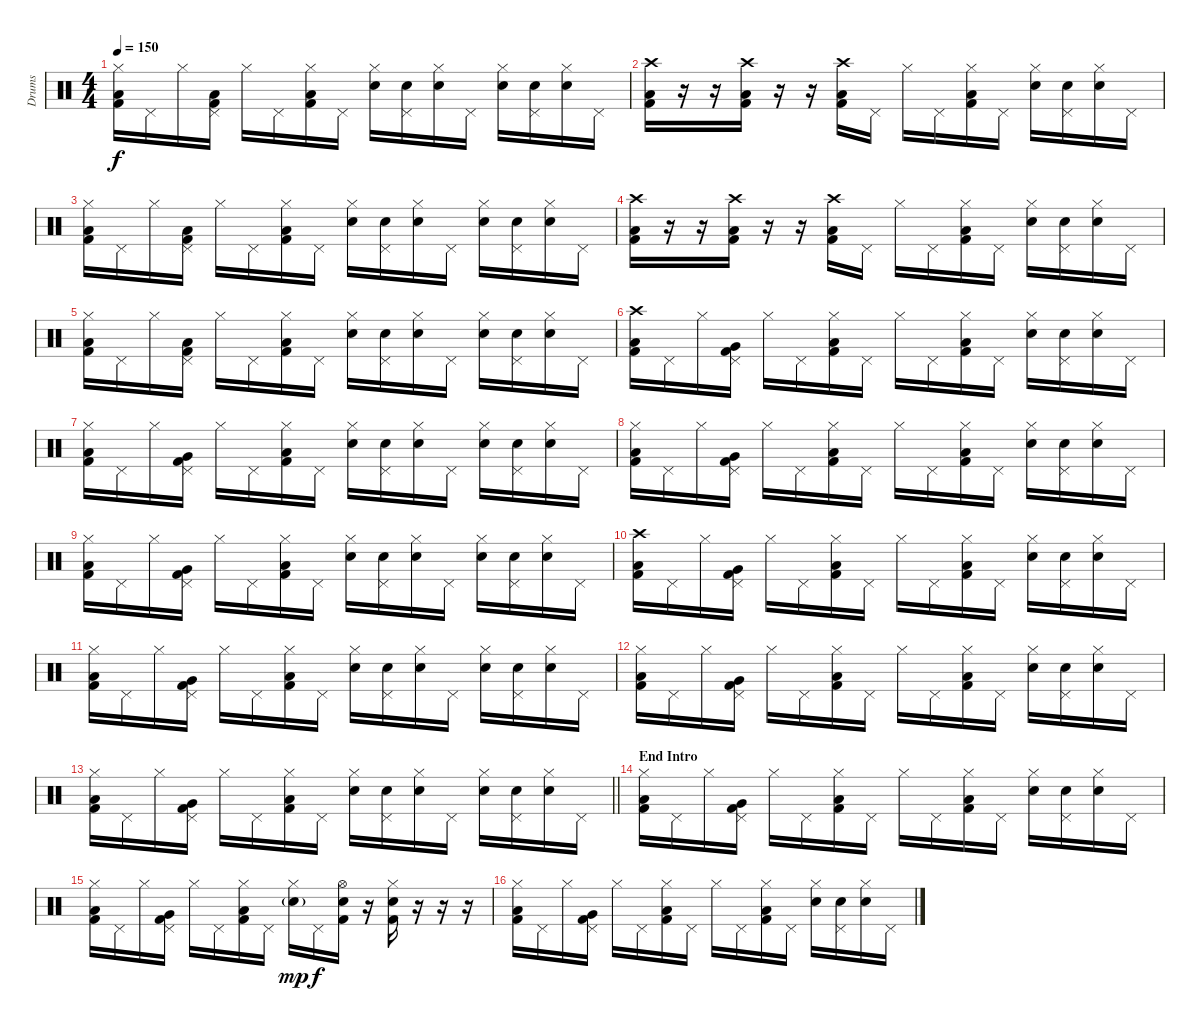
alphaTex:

\track ("Drums" "Drums") {instrument percussion}
\staff {score}
\articulation defaults
\ts (4 4)
\tempo 150
\clef neutral
\ks c
("Hi-Hat (closed)" "Low Floor Tom (hit)" "Kick (hit) 2").16{dy f} "Pedal Hi-Hat (hit)".16 "Hi-Hat (closed)".16 ("Pedal Hi-Hat (hit)" "Low Floor Tom (hit)" "Kick (hit) 2").16 "Hi-Hat (closed)".16 "Pedal Hi-Hat (hit)".16 ("Hi-Hat (closed)" "Low Floor Tom (hit)" "Kick (hit) 2").16 "Pedal Hi-Hat (hit)".16 ("Hi-Hat (closed)" "Electric Snare (hit)").16 ("Pedal Hi-Hat (hit)" "Electric Snare (hit)").16 ("Hi-Hat (closed)" "Electric Snare (hit)").16 "Pedal Hi-Hat (hit)".16 ("Hi-Hat (closed)" "Electric Snare (hit)").16 ("Pedal Hi-Hat (hit)" "Electric Snare (hit)").16 ("Hi-Hat (closed)" "Electric Snare (hit)").16 "Pedal Hi-Hat (hit)".16 |
("Crash high (hit)" "Low Floor Tom (hit)" "Kick (hit) 2").16 r.16 r.16 ("Crash high (hit)" "Low Floor Tom (hit)" "Kick (hit) 2").16 r.16 r.16 ("Crash high (hit)" "Low Floor Tom (hit)" "Kick (hit) 2").16 "Pedal Hi-Hat (hit)".16 "Hi-Hat (closed)".16 "Pedal Hi-Hat (hit)".16 ("Hi-Hat (closed)" "Low Floor Tom (hit)" "Kick (hit) 2").16 "Pedal Hi-Hat (hit)".16 ("Hi-Hat (closed)" "Electric Snare (hit)").16 ("Pedal Hi-Hat (hit)" "Electric Snare (hit)").16 ("Hi-Hat (closed)" "Electric Snare (hit)").16 "Pedal Hi-Hat (hit)".16 |
("Hi-Hat (closed)" "Low Floor Tom (hit)" "Kick (hit) 2").16 "Pedal Hi-Hat (hit)".16 "Hi-Hat (closed)".16 ("Pedal Hi-Hat (hit)" "Low Floor Tom (hit)" "Kick (hit) 2").16 "Hi-Hat (closed)".16 "Pedal Hi-Hat (hit)".16 ("Hi-Hat (closed)" "Low Floor Tom (hit)" "Kick (hit) 2").16 "Pedal Hi-Hat (hit)".16 ("Hi-Hat (closed)" "Electric Snare (hit)").16 ("Pedal Hi-Hat (hit)" "Electric Snare (hit)").16 ("Hi-Hat (closed)" "Electric Snare (hit)").16 "Pedal Hi-Hat (hit)".16 ("Hi-Hat (closed)" "Electric Snare (hit)").16 ("Pedal Hi-Hat (hit)" "Electric Snare (hit)").16 ("Hi-Hat (closed)" "Electric Snare (hit)").16 "Pedal Hi-Hat (hit)".16 |
("Crash high (hit)" "Low Floor Tom (hit)" "Kick (hit) 2").16 r.16 r.16 ("Crash high (hit)" "Low Floor Tom (hit)" "Kick (hit) 2").16 r.16 r.16 ("Crash high (hit)" "Low Floor Tom (hit)" "Kick (hit) 2").16 "Pedal Hi-Hat (hit)".16 "Hi-Hat (closed)".16 "Pedal Hi-Hat (hit)".16 ("Hi-Hat (closed)" "Low Floor Tom (hit)" "Kick (hit) 2").16 "Pedal Hi-Hat (hit)".16 ("Hi-Hat (closed)" "Electric Snare (hit)").16 ("Pedal Hi-Hat (hit)" "Electric Snare (hit)").16 ("Hi-Hat (closed)" "Electric Snare (hit)").16 "Pedal Hi-Hat (hit)".16 |
("Hi-Hat (closed)" "Low Floor Tom (hit)" "Kick (hit) 2").16 "Pedal Hi-Hat (hit)".16 "Hi-Hat (closed)".16 ("Pedal Hi-Hat (hit)" "Low Floor Tom (hit)" "Kick (hit) 2").16 "Hi-Hat (closed)".16 "Pedal Hi-Hat (hit)".16 ("Hi-Hat (closed)" "Low Floor Tom (hit)" "Kick (hit) 2").16 "Pedal Hi-Hat (hit)".16 ("Hi-Hat (closed)" "Electric Snare (hit)").16 ("Pedal Hi-Hat (hit)" "Electric Snare (hit)").16 ("Hi-Hat (closed)" "Electric Snare (hit)").16 "Pedal Hi-Hat (hit)".16 ("Hi-Hat (closed)" "Electric Snare (hit)").16 ("Pedal Hi-Hat (hit)" "Electric Snare (hit)").16 ("Hi-Hat (closed)" "Electric Snare (hit)").16 "Pedal Hi-Hat (hit)".16 |
("Crash high (hit)" "Low Tom (hit)" "Kick (hit) 2").16 "Pedal Hi-Hat (hit)".16 "Hi-Hat (closed)".16 ("Pedal Hi-Hat (hit)" "Very Low Tom (hit)" "Kick (hit) 2").16 "Hi-Hat (closed)".16 "Pedal Hi-Hat (hit)".16 ("Hi-Hat (closed)" "Low Floor Tom (hit)" "Kick (hit) 2").16 "Pedal Hi-Hat (hit)".16 "Hi-Hat (closed)".16 "Pedal Hi-Hat (hit)".16 ("Hi-Hat (closed)" "Low Floor Tom (hit)" "Kick (hit) 2").16 "Pedal Hi-Hat (hit)".16 ("Hi-Hat (closed)" "Electric Snare (hit)").16 ("Pedal Hi-Hat (hit)" "Electric Snare (hit)").16 ("Hi-Hat (closed)" "Electric Snare (hit)").16 "Pedal Hi-Hat (hit)".16 |
("Hi-Hat (closed)" "Low Tom (hit)" "Kick (hit) 2").16 "Pedal Hi-Hat (hit)".16 "Hi-Hat (closed)".16 ("Pedal Hi-Hat (hit)" "Very Low Tom (hit)" "Kick (hit) 2").16 "Hi-Hat (closed)".16 "Pedal Hi-Hat (hit)".16 ("Hi-Hat (closed)" "Low Floor Tom (hit)" "Kick (hit) 2").16 "Pedal Hi-Hat (hit)".16 ("Hi-Hat (closed)" "Electric Snare (hit)").16 ("Pedal Hi-Hat (hit)" "Electric Snare (hit)").16 ("Hi-Hat (closed)" "Electric Snare (hit)").16 "Pedal Hi-Hat (hit)".16 ("Hi-Hat (closed)" "Electric Snare (hit)").16 ("Pedal Hi-Hat (hit)" "Electric Snare (hit)").16 ("Hi-Hat (closed)" "Electric Snare (hit)").16 "Pedal Hi-Hat (hit)".16 |
("Hi-Hat (closed)" "Low Tom (hit)" "Kick (hit) 2").16 "Pedal Hi-Hat (hit)".16 "Hi-Hat (closed)".16 ("Pedal Hi-Hat (hit)" "Very Low Tom (hit)" "Kick (hit) 2").16 "Hi-Hat (closed)".16 "Pedal Hi-Hat (hit)".16 ("Hi-Hat (closed)" "Low Floor Tom (hit)" "Kick (hit) 2").16 "Pedal Hi-Hat (hit)".16 "Hi-Hat (closed)".16 "Pedal Hi-Hat (hit)".16 ("Hi-Hat (closed)" "Low Floor Tom (hit)" "Kick (hit) 2").16 "Pedal Hi-Hat (hit)".16 ("Hi-Hat (closed)" "Electric Snare (hit)").16 ("Pedal Hi-Hat (hit)" "Electric Snare (hit)").16 ("Hi-Hat (closed)" "Electric Snare (hit)").16 "Pedal Hi-Hat (hit)".16 |
("Hi-Hat (closed)" "Low Tom (hit)" "Kick (hit) 2").16 "Pedal Hi-Hat (hit)".16 "Hi-Hat (closed)".16 ("Pedal Hi-Hat (hit)" "Very Low Tom (hit)" "Kick (hit) 2").16 "Hi-Hat (closed)".16 "Pedal Hi-Hat (hit)".16 ("Hi-Hat (closed)" "Low Floor Tom (hit)" "Kick (hit) 2").16 "Pedal Hi-Hat (hit)".16 ("Hi-Hat (closed)" "Electric Snare (hit)").16 ("Pedal Hi-Hat (hit)" "Electric Snare (hit)").16 ("Hi-Hat (closed)" "Electric Snare (hit)").16 "Pedal Hi-Hat (hit)".16 ("Hi-Hat (closed)" "Electric Snare (hit)").16 ("Pedal Hi-Hat (hit)" "Electric Snare (hit)").16 ("Hi-Hat (closed)" "Electric Snare (hit)").16 "Pedal Hi-Hat (hit)".16 |
("Crash high (hit)" "Low Tom (hit)" "Kick (hit) 2").16 "Pedal Hi-Hat (hit)".16 "Hi-Hat (closed)".16 ("Pedal Hi-Hat (hit)" "Very Low Tom (hit)" "Kick (hit) 2").16 "Hi-Hat (closed)".16 "Pedal Hi-Hat (hit)".16 ("Hi-Hat (closed)" "Low Floor Tom (hit)" "Kick (hit) 2").16 "Pedal Hi-Hat (hit)".16 "Hi-Hat (closed)".16 "Pedal Hi-Hat (hit)".16 ("Hi-Hat (closed)" "Low Floor Tom (hit)" "Kick (hit) 2").16 "Pedal Hi-Hat (hit)".16 ("Hi-Hat (closed)" "Electric Snare (hit)").16 ("Pedal Hi-Hat (hit)" "Electric Snare (hit)").16 ("Hi-Hat (closed)" "Electric Snare (hit)").16 "Pedal Hi-Hat (hit)".16 |
("Hi-Hat (closed)" "Low Tom (hit)" "Kick (hit) 2").16 "Pedal Hi-Hat (hit)".16 "Hi-Hat (closed)".16 ("Pedal Hi-Hat (hit)" "Very Low Tom (hit)" "Kick (hit) 2").16 "Hi-Hat (closed)".16 "Pedal Hi-Hat (hit)".16 ("Hi-Hat (closed)" "Low Floor Tom (hit)" "Kick (hit) 2").16 "Pedal Hi-Hat (hit)".16 ("Hi-Hat (closed)" "Electric Snare (hit)").16 ("Pedal Hi-Hat (hit)" "Electric Snare (hit)").16 ("Hi-Hat (closed)" "Electric Snare (hit)").16 "Pedal Hi-Hat (hit)".16 ("Hi-Hat (closed)" "Electric Snare (hit)").16 ("Pedal Hi-Hat (hit)" "Electric Snare (hit)").16 ("Hi-Hat (closed)" "Electric Snare (hit)").16 "Pedal Hi-Hat (hit)".16 |
("Hi-Hat (closed)" "Low Tom (hit)" "Kick (hit) 2").16 "Pedal Hi-Hat (hit)".16 "Hi-Hat (closed)".16 ("Pedal Hi-Hat (hit)" "Very Low Tom (hit)" "Kick (hit) 2").16 "Hi-Hat (closed)".16 "Pedal Hi-Hat (hit)".16 ("Hi-Hat (closed)" "Low Floor Tom (hit)" "Kick (hit) 2").16 "Pedal Hi-Hat (hit)".16 "Hi-Hat (closed)".16 "Pedal Hi-Hat (hit)".16 ("Hi-Hat (closed)" "Low Floor Tom (hit)" "Kick (hit) 2").16 "Pedal Hi-Hat (hit)".16 ("Hi-Hat (closed)" "Electric Snare (hit)").16 ("Pedal Hi-Hat (hit)" "Electric Snare (hit)").16 ("Hi-Hat (closed)" "Electric Snare (hit)").16 "Pedal Hi-Hat (hit)".16 |
\barLineRight lightlight
("Hi-Hat (closed)" "Low Tom (hit)" "Kick (hit) 2").16 "Pedal Hi-Hat (hit)".16 "Hi-Hat (closed)".16 ("Pedal Hi-Hat (hit)" "Very Low Tom (hit)" "Kick (hit) 2").16 "Hi-Hat (closed)".16 "Pedal Hi-Hat (hit)".16 ("Hi-Hat (closed)" "Low Floor Tom (hit)" "Kick (hit) 2").16 "Pedal Hi-Hat (hit)".16 ("Hi-Hat (closed)" "Electric Snare (hit)").16 ("Pedal Hi-Hat (hit)" "Electric Snare (hit)").16 ("Hi-Hat (closed)" "Electric Snare (hit)").16 "Pedal Hi-Hat (hit)".16 ("Hi-Hat (closed)" "Electric Snare (hit)").16 ("Pedal Hi-Hat (hit)" "Electric Snare (hit)").16 ("Hi-Hat (closed)" "Electric Snare (hit)").16 "Pedal Hi-Hat (hit)".16 |
\section ("" "End Intro")
("Hi-Hat (closed)" "Low Tom (hit)" "Kick (hit) 2").16 "Pedal Hi-Hat (hit)".16 "Hi-Hat (closed)".16 ("Pedal Hi-Hat (hit)" "Very Low Tom (hit)" "Kick (hit) 2").16 "Hi-Hat (closed)".16 "Pedal Hi-Hat (hit)".16 ("Hi-Hat (closed)" "Low Floor Tom (hit)" "Kick (hit) 2").16 "Pedal Hi-Hat (hit)".16 "Hi-Hat (closed)".16 "Pedal Hi-Hat (hit)".16 ("Hi-Hat (closed)" "Low Floor Tom (hit)" "Kick (hit) 2").16 "Pedal Hi-Hat (hit)".16 ("Hi-Hat (closed)" "Electric Snare (hit)").16 ("Pedal Hi-Hat (hit)" "Electric Snare (hit)").16 ("Hi-Hat (closed)" "Electric Snare (hit)").16 "Pedal Hi-Hat (hit)".16 |
("Hi-Hat (closed)" "Low Tom (hit)" "Kick (hit) 2").16 "Pedal Hi-Hat (hit)".16 "Hi-Hat (closed)".16 ("Pedal Hi-Hat (hit)" "Very Low Tom (hit)" "Kick (hit) 2").16 "Hi-Hat (closed)".16 "Pedal Hi-Hat (hit)".16 ("Hi-Hat (closed)" "Low Floor Tom (hit)" "Kick (hit) 2").16 "Pedal Hi-Hat (hit)".16 ("Hi-Hat (closed)" "Electric Snare (hit)"{g}).16{dy mp} "Pedal Hi-Hat (hit)".16{dy f} ("Hi-Hat (open)" "Electric Snare (hit)" "Kick (hit) 2").16 r.16 ("Hi-Hat (closed)" "Electric Snare (hit)" "Kick (hit) 2").16 r.16 r.16 r.16 |
("Hi-Hat (closed)" "Low Tom (hit)" "Kick (hit) 2").16 "Pedal Hi-Hat (hit)".16 "Hi-Hat (closed)".16 ("Pedal Hi-Hat (hit)" "Very Low Tom (hit)" "Kick (hit) 2").16 "Hi-Hat (closed)".16 "Pedal Hi-Hat (hit)".16 ("Hi-Hat (closed)" "Low Floor Tom (hit)" "Kick (hit) 2").16 "Pedal Hi-Hat (hit)".16 "Hi-Hat (closed)".16 "Pedal Hi-Hat (hit)".16 ("Hi-Hat (closed)" "Low Floor Tom (hit)" "Kick (hit) 2").16 "Pedal Hi-Hat (hit)".16 ("Hi-Hat (closed)" "Electric Snare (hit)").16 ("Pedal Hi-Hat (hit)" "Electric Snare (hit)").16 ("Hi-Hat (closed)" "Electric Snare (hit)").16 "Pedal Hi-Hat (hit)".16
